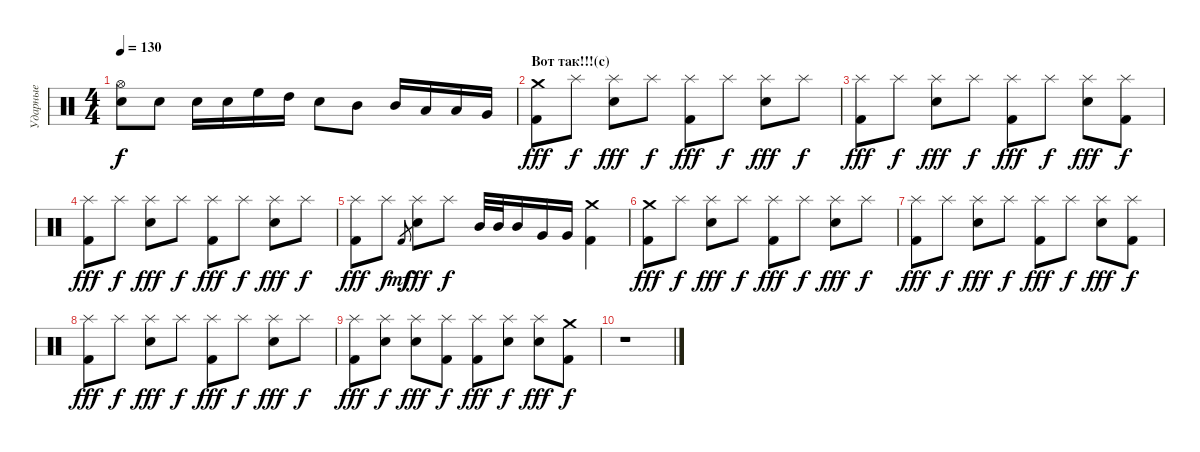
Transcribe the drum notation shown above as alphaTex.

\track ("Ударные" "Ударные") {instrument percussion}
\staff {score}
\articulation defaults
\ts (4 4)
\tempo 130
\clef neutral
\ks c
("Electric Snare (hit)" "Hi-Hat (open)").8{dy f} "Electric Snare (hit)".8 "Electric Snare (hit)".16 "Electric Snare (hit)".16 "High Floor Tom (hit)".16 "High Tom (hit)".16 "Electric Snare (hit)".8 "Mid Tom (hit)".8 "Mid Tom (hit)".16 "Low Tom (hit)".16 "Low Tom (hit)".16 "Very Low Tom (hit)".16 |
\section ("" "Вот так!!!(с)")
("Kick (hit) 2" "Crash medium (hit)").8{dy fff} "Splash (hit)".8{dy f} ("Electric Snare (hit)" "Splash (hit)").8{dy fff} "Splash (hit)".8{dy f} ("Kick (hit) 2" "Splash (hit)").8{dy fff} "Splash (hit)".8{dy f} ("Electric Snare (hit)" "Splash (hit)").8{dy fff} "Splash (hit)".8{dy f} |
("Kick (hit) 2" "Splash (hit)").8{dy fff} "Splash (hit)".8{dy f} ("Electric Snare (hit)" "Splash (hit)").8{dy fff} "Splash (hit)".8{dy f} ("Kick (hit) 2" "Splash (hit)").8{dy fff} "Splash (hit)".8{dy f} ("Electric Snare (hit)" "Splash (hit)").8{dy fff} ("Kick (hit) 2" "Splash (hit)").8{dy f} |
("Kick (hit) 2" "Splash (hit)").8{dy fff} "Splash (hit)".8{dy f} ("Electric Snare (hit)" "Splash (hit)").8{dy fff} "Splash (hit)".8{dy f} ("Kick (hit) 2" "Splash (hit)").8{dy fff} "Splash (hit)".8{dy f} ("Electric Snare (hit)" "Splash (hit)").8{dy fff} "Splash (hit)".8{dy f} |
("Kick (hit) 2" "Splash (hit)").8{dy fff} "Splash (hit)".8{dy f} "Kick (hit) 2".8{gr dy mf} ("Electric Snare (hit)" "Splash (hit)").8{dy fff} "Splash (hit)".8{dy f} "Mid Tom (hit)".32 "Mid Tom (hit)".32 "Mid Tom (hit)".16 "Very Low Tom (hit)".16 "Very Low Tom (hit)".16 ("Kick (hit) 2" "Crash medium (hit)").4 |
("Kick (hit) 2" "Crash medium (hit)").8{dy fff} "Splash (hit)".8{dy f} ("Electric Snare (hit)" "Splash (hit)").8{dy fff} "Splash (hit)".8{dy f} ("Kick (hit) 2" "Splash (hit)").8{dy fff} "Splash (hit)".8{dy f} ("Electric Snare (hit)" "Splash (hit)").8{dy fff} "Splash (hit)".8{dy f} |
("Kick (hit) 2" "Splash (hit)").8{dy fff} "Splash (hit)".8{dy f} ("Electric Snare (hit)" "Splash (hit)").8{dy fff} "Splash (hit)".8{dy f} ("Kick (hit) 2" "Splash (hit)").8{dy fff} "Splash (hit)".8{dy f} ("Electric Snare (hit)" "Splash (hit)").8{dy fff} ("Kick (hit) 2" "Splash (hit)").8{dy f} |
("Kick (hit) 2" "Splash (hit)").8{dy fff} "Splash (hit)".8{dy f} ("Electric Snare (hit)" "Splash (hit)").8{dy fff} "Splash (hit)".8{dy f} ("Kick (hit) 2" "Splash (hit)").8{dy fff} "Splash (hit)".8{dy f} ("Electric Snare (hit)" "Splash (hit)").8{dy fff} "Splash (hit)".8{dy f} |
("Kick (hit) 2" "Splash (hit)").8{dy fff} ("Electric Snare (hit)" "Splash (hit)").8{dy f} ("Electric Snare (hit)" "Splash (hit)").8{dy fff} ("Kick (hit) 2" "Splash (hit)").8{dy f} ("Kick (hit) 2" "Splash (hit)").8{dy fff} ("Electric Snare (hit)" "Splash (hit)").8{dy f} ("Electric Snare (hit)" "Splash (hit)").8{dy fff} ("Kick (hit) 2" "Crash medium (hit)").8{dy f} |
r.1
